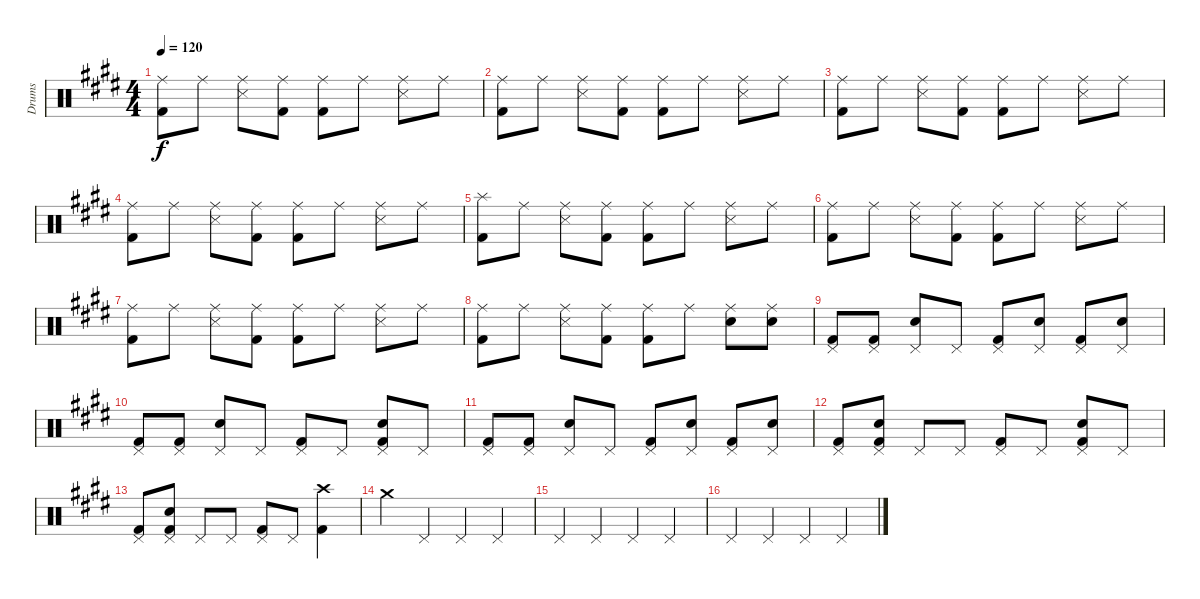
\track ("Drums" "Drums") {instrument percussion}
\staff {score}
\articulation defaults
\ts (4 4)
\tempo 120
\clef neutral
\ks e
("Ride (middle)" "Kick (hit) 2").8{dy f} "Ride (middle)".8 ("Ride (middle)" "Snare (side stick) 3").8 ("Ride (middle)" "Kick (hit) 2").8 ("Ride (middle)" "Kick (hit) 2").8 "Ride (middle)".8 ("Ride (middle)" "Snare (side stick) 3").8 "Ride (middle)".8 |
("Ride (middle)" "Kick (hit) 2").8 "Ride (middle)".8 ("Ride (middle)" "Snare (side stick) 3").8 ("Ride (middle)" "Kick (hit) 2").8 ("Ride (middle)" "Kick (hit) 2").8 "Ride (middle)".8 ("Ride (middle)" "Snare (side stick) 3").8 "Ride (middle)".8 |
("Ride (middle)" "Kick (hit) 2").8 "Ride (middle)".8 ("Ride (middle)" "Snare (side stick) 3").8 ("Ride (middle)" "Kick (hit) 2").8 ("Ride (middle)" "Kick (hit) 2").8 "Ride (middle)".8 ("Ride (middle)" "Snare (side stick) 3").8 "Ride (middle)".8 |
("Ride (middle)" "Kick (hit) 2").8 "Ride (middle)".8 ("Ride (middle)" "Snare (side stick) 3").8 ("Ride (middle)" "Kick (hit) 2").8 ("Ride (middle)" "Kick (hit) 2").8 "Ride (middle)".8 ("Ride (middle)" "Snare (side stick) 3").8 "Ride (middle)".8 |
("Splash (hit)" "Kick (hit) 2").8 "Ride (middle)".8 ("Ride (middle)" "Snare (side stick) 3").8 ("Ride (middle)" "Kick (hit) 2").8 ("Ride (middle)" "Kick (hit) 2").8 "Ride (middle)".8 ("Ride (middle)" "Snare (side stick) 3").8 "Ride (middle)".8 |
("Ride (middle)" "Kick (hit) 2").8 "Ride (middle)".8 ("Ride (middle)" "Snare (side stick) 3").8 ("Ride (middle)" "Kick (hit) 2").8 ("Ride (middle)" "Kick (hit) 2").8 "Ride (middle)".8 ("Ride (middle)" "Snare (side stick) 3").8 "Ride (middle)".8 |
("Ride (middle)" "Kick (hit) 2").8 "Ride (middle)".8 ("Ride (middle)" "Snare (side stick) 3").8 ("Ride (middle)" "Kick (hit) 2").8 ("Ride (middle)" "Kick (hit) 2").8 "Ride (middle)".8 ("Ride (middle)" "Snare (side stick) 3").8 "Ride (middle)".8 |
("Ride (middle)" "Kick (hit) 2").8 "Ride (middle)".8 ("Ride (middle)" "Snare (side stick) 3").8 ("Ride (middle)" "Kick (hit) 2").8 ("Ride (middle)" "Kick (hit) 2").8 "Ride (middle)".8 ("Ride (middle)" "Snare (hit) 2").8 ("Ride (middle)" "Snare (hit) 2").8 |
("Pedal Hi-Hat (hit)" "Kick (hit) 2").8 ("Pedal Hi-Hat (hit)" "Kick (hit) 2").8 ("Pedal Hi-Hat (hit)" "Snare (hit) 2").8 "Pedal Hi-Hat (hit)".8 ("Pedal Hi-Hat (hit)" "Kick (hit) 2").8 ("Pedal Hi-Hat (hit)" "Snare (hit) 2").8 ("Pedal Hi-Hat (hit)" "Kick (hit) 2").8 ("Pedal Hi-Hat (hit)" "Snare (hit) 2").8 |
("Pedal Hi-Hat (hit)" "Kick (hit) 2").8 ("Pedal Hi-Hat (hit)" "Kick (hit) 2").8 ("Pedal Hi-Hat (hit)" "Snare (hit) 2").8 "Pedal Hi-Hat (hit)".8 ("Pedal Hi-Hat (hit)" "Kick (hit) 2").8 "Pedal Hi-Hat (hit)".8 ("Pedal Hi-Hat (hit)" "Snare (hit) 2" "Kick (hit) 2").8 "Pedal Hi-Hat (hit)".8 |
("Pedal Hi-Hat (hit)" "Kick (hit) 2").8 ("Pedal Hi-Hat (hit)" "Kick (hit) 2").8 ("Pedal Hi-Hat (hit)" "Snare (hit) 2").8 "Pedal Hi-Hat (hit)".8 ("Pedal Hi-Hat (hit)" "Kick (hit) 2").8 ("Pedal Hi-Hat (hit)" "Snare (hit) 2").8 ("Pedal Hi-Hat (hit)" "Kick (hit) 2").8 ("Pedal Hi-Hat (hit)" "Snare (hit) 2").8 |
("Pedal Hi-Hat (hit)" "Kick (hit) 2").8 ("Pedal Hi-Hat (hit)" "Snare (hit) 2" "Kick (hit) 2").8 "Pedal Hi-Hat (hit)".8 "Pedal Hi-Hat (hit)".8 ("Pedal Hi-Hat (hit)" "Kick (hit) 2").8 "Pedal Hi-Hat (hit)".8 ("Pedal Hi-Hat (hit)" "Snare (hit) 2" "Kick (hit) 2").8 "Pedal Hi-Hat (hit)".8 |
("Pedal Hi-Hat (hit)" "Kick (hit) 2").8 ("Pedal Hi-Hat (hit)" "Snare (hit) 2" "Kick (hit) 2").8 "Pedal Hi-Hat (hit)".8 "Pedal Hi-Hat (hit)".8 ("Pedal Hi-Hat (hit)" "Kick (hit) 2").8 "Pedal Hi-Hat (hit)".8 ("Crash high (hit)" "Kick (hit) 2").4 |
"Crash medium (hit)".4 "Pedal Hi-Hat (hit)".4 "Pedal Hi-Hat (hit)".4 "Pedal Hi-Hat (hit)".4 |
"Pedal Hi-Hat (hit)".4 "Pedal Hi-Hat (hit)".4 "Pedal Hi-Hat (hit)".4 "Pedal Hi-Hat (hit)".4 |
"Pedal Hi-Hat (hit)".4 "Pedal Hi-Hat (hit)".4 "Pedal Hi-Hat (hit)".4 "Pedal Hi-Hat (hit)".4
